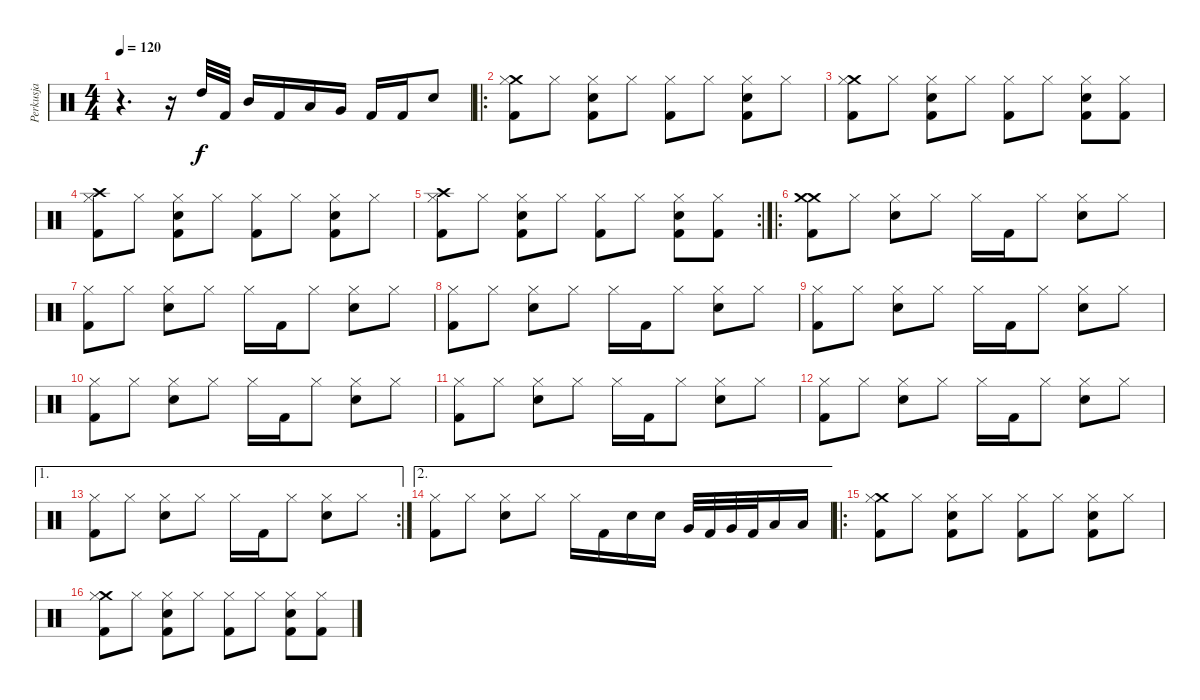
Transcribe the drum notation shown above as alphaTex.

\track ("Perkusja" "Perkusja") {instrument percussion}
\staff {score}
\articulation defaults
\ts (4 4)
\tempo 120
\clef neutral
\ks c
r.4{d dy f} r.16 "High Tom (hit)".32 "Kick (hit) 2".32 "Mid Tom (hit)".16 "Kick (hit) 2".16 "Low Tom (hit)".16 "Very Low Tom (hit)".16 "Kick (hit) 2".16 "Kick (hit) 2".16 "Electric Snare (hit)".8 |
\ro
("Crash medium (hit)" "Hi-Hat (closed)" "Kick (hit) 2").8 "Hi-Hat (closed)".8 ("Hi-Hat (closed)" "Electric Snare (hit)" "Kick (hit) 2").8 "Hi-Hat (closed)".8 ("Hi-Hat (closed)" "Kick (hit) 2").8 "Hi-Hat (closed)".8 ("Hi-Hat (closed)" "Electric Snare (hit)" "Kick (hit) 2").8 "Hi-Hat (closed)".8 |
("Crash medium (hit)" "Hi-Hat (closed)" "Kick (hit) 2").8 "Hi-Hat (closed)".8 ("Hi-Hat (closed)" "Electric Snare (hit)" "Kick (hit) 2").8 "Hi-Hat (closed)".8 ("Hi-Hat (closed)" "Kick (hit) 2").8 "Hi-Hat (closed)".8 ("Hi-Hat (closed)" "Electric Snare (hit)" "Kick (hit) 2").8 ("Hi-Hat (closed)" "Kick (hit) 2").8 |
("Crash high (hit)" "Hi-Hat (closed)" "Kick (hit) 2").8 "Hi-Hat (closed)".8 ("Hi-Hat (closed)" "Electric Snare (hit)" "Kick (hit) 2").8 "Hi-Hat (closed)".8 ("Hi-Hat (closed)" "Kick (hit) 2").8 "Hi-Hat (closed)".8 ("Hi-Hat (closed)" "Electric Snare (hit)" "Kick (hit) 2").8 "Hi-Hat (closed)".8 |
\rc 2
("Crash high (hit)" "Hi-Hat (closed)" "Kick (hit) 2").8 "Hi-Hat (closed)".8 ("Hi-Hat (closed)" "Electric Snare (hit)" "Kick (hit) 2").8 "Hi-Hat (closed)".8 ("Hi-Hat (closed)" "Kick (hit) 2").8 "Hi-Hat (closed)".8 ("Hi-Hat (closed)" "Electric Snare (hit)" "Kick (hit) 2").8 ("Hi-Hat (closed)" "Kick (hit) 2").8 |
\ro
("Crash medium (hit)" "Crash medium (hit)" "Kick (hit) 2").8 "Hi-Hat (closed)".8 ("Hi-Hat (closed)" "Electric Snare (hit)").8 "Hi-Hat (closed)".8 "Hi-Hat (closed)".16 "Kick (hit) 2".16 "Hi-Hat (closed)".8 ("Hi-Hat (closed)" "Electric Snare (hit)").8 "Hi-Hat (closed)".8 |
("Hi-Hat (closed)" "Kick (hit) 2").8 "Hi-Hat (closed)".8 ("Hi-Hat (closed)" "Electric Snare (hit)").8 "Hi-Hat (closed)".8 "Hi-Hat (closed)".16 "Kick (hit) 2".16 "Hi-Hat (closed)".8 ("Hi-Hat (closed)" "Electric Snare (hit)").8 "Hi-Hat (closed)".8 |
("Hi-Hat (closed)" "Kick (hit) 2").8 "Hi-Hat (closed)".8 ("Hi-Hat (closed)" "Electric Snare (hit)").8 "Hi-Hat (closed)".8 "Hi-Hat (closed)".16 "Kick (hit) 2".16 "Hi-Hat (closed)".8 ("Hi-Hat (closed)" "Electric Snare (hit)").8 "Hi-Hat (closed)".8 |
("Hi-Hat (closed)" "Kick (hit) 2").8 "Hi-Hat (closed)".8 ("Hi-Hat (closed)" "Electric Snare (hit)").8 "Hi-Hat (closed)".8 "Hi-Hat (closed)".16 "Kick (hit) 2".16 "Hi-Hat (closed)".8 ("Hi-Hat (closed)" "Electric Snare (hit)").8 "Hi-Hat (closed)".8 |
("Hi-Hat (closed)" "Kick (hit) 2").8 "Hi-Hat (closed)".8 ("Hi-Hat (closed)" "Electric Snare (hit)").8 "Hi-Hat (closed)".8 "Hi-Hat (closed)".16 "Kick (hit) 2".16 "Hi-Hat (closed)".8 ("Hi-Hat (closed)" "Electric Snare (hit)").8 "Hi-Hat (closed)".8 |
("Hi-Hat (closed)" "Kick (hit) 2").8 "Hi-Hat (closed)".8 ("Hi-Hat (closed)" "Electric Snare (hit)").8 "Hi-Hat (closed)".8 "Hi-Hat (closed)".16 "Kick (hit) 2".16 "Hi-Hat (closed)".8 ("Hi-Hat (closed)" "Electric Snare (hit)").8 "Hi-Hat (closed)".8 |
("Hi-Hat (closed)" "Kick (hit) 2").8 "Hi-Hat (closed)".8 ("Hi-Hat (closed)" "Electric Snare (hit)").8 "Hi-Hat (closed)".8 "Hi-Hat (closed)".16 "Kick (hit) 2".16 "Hi-Hat (closed)".8 ("Hi-Hat (closed)" "Electric Snare (hit)").8 "Hi-Hat (closed)".8 |
\ae 1
\rc 2
("Hi-Hat (closed)" "Kick (hit) 2").8 "Hi-Hat (closed)".8 ("Hi-Hat (closed)" "Electric Snare (hit)").8 "Hi-Hat (closed)".8 "Hi-Hat (closed)".16 "Kick (hit) 2".16 "Hi-Hat (closed)".8 ("Hi-Hat (closed)" "Electric Snare (hit)").8 "Hi-Hat (closed)".8 |
\ae 2
("Hi-Hat (closed)" "Kick (hit) 2").8 "Hi-Hat (closed)".8 ("Hi-Hat (closed)" "Electric Snare (hit)").8 "Hi-Hat (closed)".8 "Hi-Hat (closed)".16 "Kick (hit) 2".16 "Electric Snare (hit)".16 "Electric Snare (hit)".16 "Very Low Tom (hit)".32 "Kick (hit) 2".32 "Very Low Tom (hit)".32 "Kick (hit) 2".32 "Low Floor Tom (hit)".16 "Low Floor Tom (hit)".16 |
\ro
("Crash medium (hit)" "Hi-Hat (closed)" "Kick (hit) 2").8 "Hi-Hat (closed)".8 ("Hi-Hat (closed)" "Electric Snare (hit)" "Kick (hit) 2").8 "Hi-Hat (closed)".8 ("Hi-Hat (closed)" "Kick (hit) 2").8 "Hi-Hat (closed)".8 ("Hi-Hat (closed)" "Electric Snare (hit)" "Kick (hit) 2").8 "Hi-Hat (closed)".8 |
("Crash medium (hit)" "Hi-Hat (closed)" "Kick (hit) 2").8 "Hi-Hat (closed)".8 ("Hi-Hat (closed)" "Electric Snare (hit)" "Kick (hit) 2").8 "Hi-Hat (closed)".8 ("Hi-Hat (closed)" "Kick (hit) 2").8 "Hi-Hat (closed)".8 ("Hi-Hat (closed)" "Electric Snare (hit)" "Kick (hit) 2").8 ("Hi-Hat (closed)" "Kick (hit) 2").8
